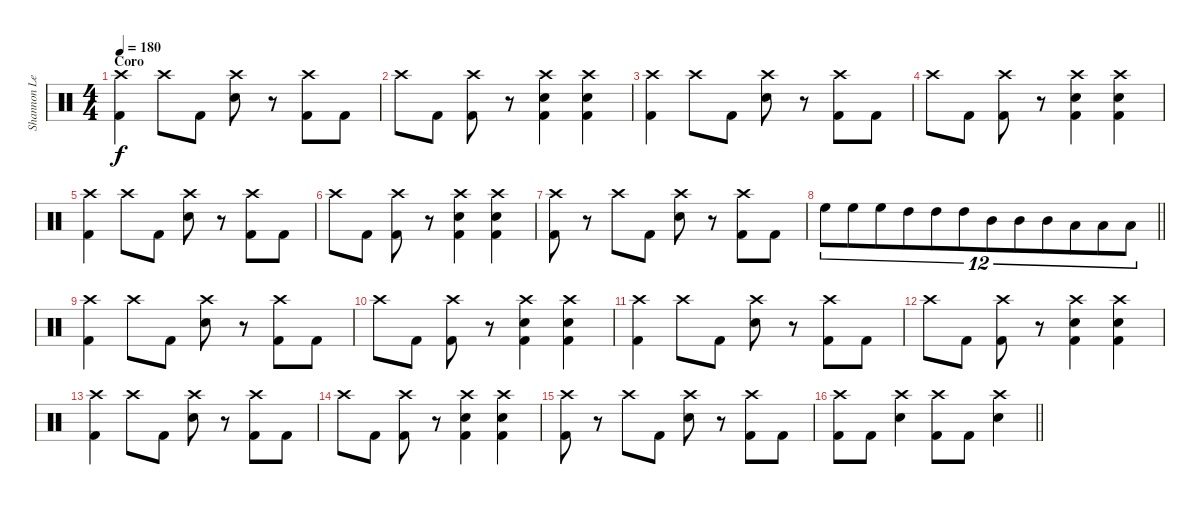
\track ("Shannon Leto" "Shannon Le") {instrument percussion}
\staff {score}
\articulation defaults
\ts (4 4)
\section ("" "Coro")
\tempo 180
\clef neutral
\ks c
("Crash high (hit)" "Kick (hit) 2").4{dy f} "Crash high (hit)".8 "Kick (hit) 2".8 ("Crash high (hit)" "Snare (hit) 2").8 r.8 ("Crash high (hit)" "Kick (hit) 2").8 "Kick (hit) 2".8 |
"Crash high (hit)".8 "Kick (hit) 2".8 ("Crash high (hit)" "Kick (hit) 2").8 r.8 ("Crash high (hit)" "Snare (hit) 2" "Kick (hit) 2").4 ("Crash high (hit)" "Snare (hit) 2" "Kick (hit) 2").4 |
("Crash high (hit)" "Kick (hit) 2").4 "Crash high (hit)".8 "Kick (hit) 2".8 ("Crash high (hit)" "Snare (hit) 2").8 r.8 ("Crash high (hit)" "Kick (hit) 2").8 "Kick (hit) 2".8 |
"Crash high (hit)".8 "Kick (hit) 2".8 ("Crash high (hit)" "Kick (hit) 2").8 r.8 ("Crash high (hit)" "Snare (hit) 2" "Kick (hit) 2").4 ("Crash high (hit)" "Snare (hit) 2" "Kick (hit) 2").4 |
("Crash high (hit)" "Kick (hit) 2").4 "Crash high (hit)".8 "Kick (hit) 2".8 ("Crash high (hit)" "Snare (hit) 2").8 r.8 ("Crash high (hit)" "Kick (hit) 2").8 "Kick (hit) 2".8 |
"Crash high (hit)".8 "Kick (hit) 2".8 ("Crash high (hit)" "Kick (hit) 2").8 r.8 ("Crash high (hit)" "Snare (hit) 2" "Kick (hit) 2").4 ("Crash high (hit)" "Snare (hit) 2" "Kick (hit) 2").4 |
("Crash high (hit)" "Kick (hit) 2").8 r.8 "Crash high (hit)".8 "Kick (hit) 2".8 ("Crash high (hit)" "Snare (hit) 2").8 r.8 ("Crash high (hit)" "Kick (hit) 2").8 "Kick (hit) 2".8 |
\barLineRight lightlight "High Floor Tom (hit)".8{tu (12 8)} "High Floor Tom (hit)".8{tu (12 8)} "High Floor Tom (hit)".8{tu (12 8)} "High Tom (hit)".8{tu (12 8)} "High Tom (hit)".8{tu (12 8)} "High Tom (hit)".8{tu (12 8)} "Mid Tom (hit)".8{tu (12 8)} "Mid Tom (hit)".8{tu (12 8)} "Mid Tom (hit)".8{tu (12 8)} "Low Tom (hit)".8{tu (12 8)} "Low Tom (hit)".8{tu (12 8)} "Low Tom (hit)".8{tu (12 8)}
|
("Crash high (hit)" "Kick (hit) 2").4 "Crash high (hit)".8 "Kick (hit) 2".8 ("Crash high (hit)" "Snare (hit) 2").8 r.8 ("Crash high (hit)" "Kick (hit) 2").8 "Kick (hit) 2".8 |
"Crash high (hit)".8 "Kick (hit) 2".8 ("Crash high (hit)" "Kick (hit) 2").8 r.8 ("Crash high (hit)" "Snare (hit) 2" "Kick (hit) 2").4 ("Crash high (hit)" "Snare (hit) 2" "Kick (hit) 2").4 |
("Crash high (hit)" "Kick (hit) 2").4 "Crash high (hit)".8 "Kick (hit) 2".8 ("Crash high (hit)" "Snare (hit) 2").8 r.8 ("Crash high (hit)" "Kick (hit) 2").8 "Kick (hit) 2".8 |
"Crash high (hit)".8 "Kick (hit) 2".8 ("Crash high (hit)" "Kick (hit) 2").8 r.8 ("Crash high (hit)" "Snare (hit) 2" "Kick (hit) 2").4 ("Crash high (hit)" "Snare (hit) 2" "Kick (hit) 2").4 |
("Crash high (hit)" "Kick (hit) 2").4 "Crash high (hit)".8 "Kick (hit) 2".8 ("Crash high (hit)" "Snare (hit) 2").8 r.8 ("Crash high (hit)" "Kick (hit) 2").8 "Kick (hit) 2".8 |
"Crash high (hit)".8 "Kick (hit) 2".8 ("Crash high (hit)" "Kick (hit) 2").8 r.8 ("Crash high (hit)" "Snare (hit) 2" "Kick (hit) 2").4 ("Crash high (hit)" "Snare (hit) 2" "Kick (hit) 2").4 |
("Crash high (hit)" "Kick (hit) 2").8 r.8 "Crash high (hit)".8 "Kick (hit) 2".8 ("Crash high (hit)" "Snare (hit) 2").8 r.8 ("Crash high (hit)" "Kick (hit) 2").8 "Kick (hit) 2".8 |
\barLineRight lightlight
("Crash high (hit)" "Kick (hit) 2").8 "Kick (hit) 2".8 ("Crash high (hit)" "Snare (hit) 2").4 ("Crash high (hit)" "Kick (hit) 2").8 "Kick (hit) 2".8 ("Crash high (hit)" "Snare (hit) 2").4
